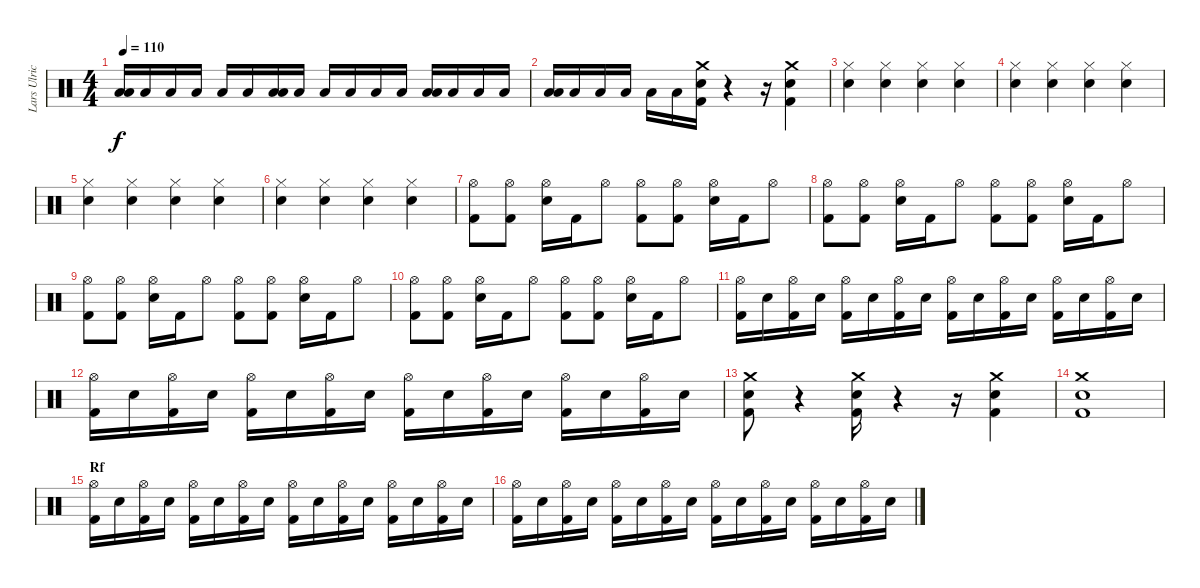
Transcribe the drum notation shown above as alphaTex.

\track ("Lars Ulrich" "Lars Ulric") {instrument percussion}
\staff {score}
\articulation defaults
\ts (4 4)
\tempo 110
\clef neutral
\ks c
("Low Tom (hit)" "Low Floor Tom (hit)").16{dy f} "Low Floor Tom (hit)".16 "Low Floor Tom (hit)".16 "Low Floor Tom (hit)".16 "Low Floor Tom (hit)".16 "Low Floor Tom (hit)".16 ("Low Tom (hit)" "Low Floor Tom (hit)").16 "Low Floor Tom (hit)".16 "Low Floor Tom (hit)".16 "Low Floor Tom (hit)".16 "Low Floor Tom (hit)".16 "Low Floor Tom (hit)".16 ("Low Tom (hit)" "Low Floor Tom (hit)").16 "Low Floor Tom (hit)".16 "Low Floor Tom (hit)".16 "Low Floor Tom (hit)".16 |
("Low Tom (hit)" "Low Floor Tom (hit)").16 "Low Floor Tom (hit)".16 "Low Floor Tom (hit)".16 "Low Floor Tom (hit)".16 "Low Floor Tom (hit)".16 "Low Floor Tom (hit)".16 ("Crash medium (hit)" "Electric Snare (hit)" "Kick (hit) 2").16 r.4 r.16 ("Crash medium (hit)" "Electric Snare (hit)" "Kick (hit) 2").4 |
("Hi-Hat (closed)" "Electric Snare (hit)").4 ("Hi-Hat (closed)" "Electric Snare (hit)").4 ("Hi-Hat (closed)" "Electric Snare (hit)").4 ("Hi-Hat (closed)" "Electric Snare (hit)").4 |
("Hi-Hat (closed)" "Electric Snare (hit)").4 ("Hi-Hat (closed)" "Electric Snare (hit)").4 ("Hi-Hat (closed)" "Electric Snare (hit)").4 ("Hi-Hat (closed)" "Electric Snare (hit)").4 |
("Hi-Hat (closed)" "Electric Snare (hit)").4 ("Hi-Hat (closed)" "Electric Snare (hit)").4 ("Hi-Hat (closed)" "Electric Snare (hit)").4 ("Hi-Hat (closed)" "Electric Snare (hit)").4 |
("Hi-Hat (closed)" "Electric Snare (hit)").4 ("Hi-Hat (closed)" "Electric Snare (hit)").4 ("Hi-Hat (closed)" "Electric Snare (hit)").4 ("Hi-Hat (closed)" "Electric Snare (hit)").4 |
("Hi-Hat (open)" "Kick (hit) 2").8 ("Hi-Hat (open)" "Kick (hit) 2").8 ("Hi-Hat (open)" "Electric Snare (hit)").16 "Kick (hit) 2".16 "Hi-Hat (open)".8 ("Hi-Hat (open)" "Kick (hit) 2").8 ("Hi-Hat (open)" "Kick (hit) 2").8 ("Hi-Hat (open)" "Electric Snare (hit)").16 "Kick (hit) 2".16 "Hi-Hat (open)".8 |
("Hi-Hat (open)" "Kick (hit) 2").8 ("Hi-Hat (open)" "Kick (hit) 2").8 ("Hi-Hat (open)" "Electric Snare (hit)").16 "Kick (hit) 2".16 "Hi-Hat (open)".8 ("Hi-Hat (open)" "Kick (hit) 2").8 ("Hi-Hat (open)" "Kick (hit) 2").8 ("Hi-Hat (open)" "Electric Snare (hit)").16 "Kick (hit) 2".16 "Hi-Hat (open)".8 |
("Hi-Hat (open)" "Kick (hit) 2").8 ("Hi-Hat (open)" "Kick (hit) 2").8 ("Hi-Hat (open)" "Electric Snare (hit)").16 "Kick (hit) 2".16 "Hi-Hat (open)".8 ("Hi-Hat (open)" "Kick (hit) 2").8 ("Hi-Hat (open)" "Kick (hit) 2").8 ("Hi-Hat (open)" "Electric Snare (hit)").16 "Kick (hit) 2".16 "Hi-Hat (open)".8 |
("Hi-Hat (open)" "Kick (hit) 2").8 ("Hi-Hat (open)" "Kick (hit) 2").8 ("Hi-Hat (open)" "Electric Snare (hit)").16 "Kick (hit) 2".16 "Hi-Hat (open)".8 ("Hi-Hat (open)" "Kick (hit) 2").8 ("Hi-Hat (open)" "Kick (hit) 2").8 ("Hi-Hat (open)" "Electric Snare (hit)").16 "Kick (hit) 2".16 "Hi-Hat (open)".8 |
("Hi-Hat (open)" "Kick (hit) 2").16 "Electric Snare (hit)".16 ("Hi-Hat (open)" "Kick (hit) 2").16 "Electric Snare (hit)".16 ("Hi-Hat (open)" "Kick (hit) 2").16 "Electric Snare (hit)".16 ("Hi-Hat (open)" "Kick (hit) 2").16 "Electric Snare (hit)".16 ("Hi-Hat (open)" "Kick (hit) 2").16 "Electric Snare (hit)".16 ("Hi-Hat (open)" "Kick (hit) 2").16 "Electric Snare (hit)".16 ("Hi-Hat (open)" "Kick (hit) 2").16 "Electric Snare (hit)".16 ("Hi-Hat (open)" "Kick (hit) 2").16 "Electric Snare (hit)".16 |
("Hi-Hat (open)" "Kick (hit) 2").16 "Electric Snare (hit)".16 ("Hi-Hat (open)" "Kick (hit) 2").16 "Electric Snare (hit)".16 ("Hi-Hat (open)" "Kick (hit) 2").16 "Electric Snare (hit)".16 ("Hi-Hat (open)" "Kick (hit) 2").16 "Electric Snare (hit)".16 ("Hi-Hat (open)" "Kick (hit) 2").16 "Electric Snare (hit)".16 ("Hi-Hat (open)" "Kick (hit) 2").16 "Electric Snare (hit)".16 ("Hi-Hat (open)" "Kick (hit) 2").16 "Electric Snare (hit)".16 ("Hi-Hat (open)" "Kick (hit) 2").16 "Electric Snare (hit)".16 |
("Crash medium (hit)" "Electric Snare (hit)" "Kick (hit) 2").8 r.4 ("Crash medium (hit)" "Electric Snare (hit)" "Kick (hit) 2").16 r.4 r.16 ("Crash medium (hit)" "Electric Snare (hit)" "Kick (hit) 2").4 |
("Crash medium (hit)" "Electric Snare (hit)" "Kick (hit) 2").1 |
\section ("" "Rf")
("Hi-Hat (open)" "Kick (hit) 2").16 "Electric Snare (hit)".16 ("Hi-Hat (open)" "Kick (hit) 2").16 "Electric Snare (hit)".16 ("Hi-Hat (open)" "Kick (hit) 2").16 "Electric Snare (hit)".16 ("Hi-Hat (open)" "Kick (hit) 2").16 "Electric Snare (hit)".16 ("Hi-Hat (open)" "Kick (hit) 2").16 "Electric Snare (hit)".16 ("Hi-Hat (open)" "Kick (hit) 2").16 "Electric Snare (hit)".16 ("Hi-Hat (open)" "Kick (hit) 2").16 "Electric Snare (hit)".16 ("Hi-Hat (open)" "Kick (hit) 2").16 "Electric Snare (hit)".16 |
("Hi-Hat (open)" "Kick (hit) 2").16 "Electric Snare (hit)".16 ("Hi-Hat (open)" "Kick (hit) 2").16 "Electric Snare (hit)".16 ("Hi-Hat (open)" "Kick (hit) 2").16 "Electric Snare (hit)".16 ("Hi-Hat (open)" "Kick (hit) 2").16 "Electric Snare (hit)".16 ("Hi-Hat (open)" "Kick (hit) 2").16 "Electric Snare (hit)".16 ("Hi-Hat (open)" "Kick (hit) 2").16 "Electric Snare (hit)".16 ("Hi-Hat (open)" "Kick (hit) 2").16 "Electric Snare (hit)".16 ("Hi-Hat (open)" "Kick (hit) 2").16 "Electric Snare (hit)".16
